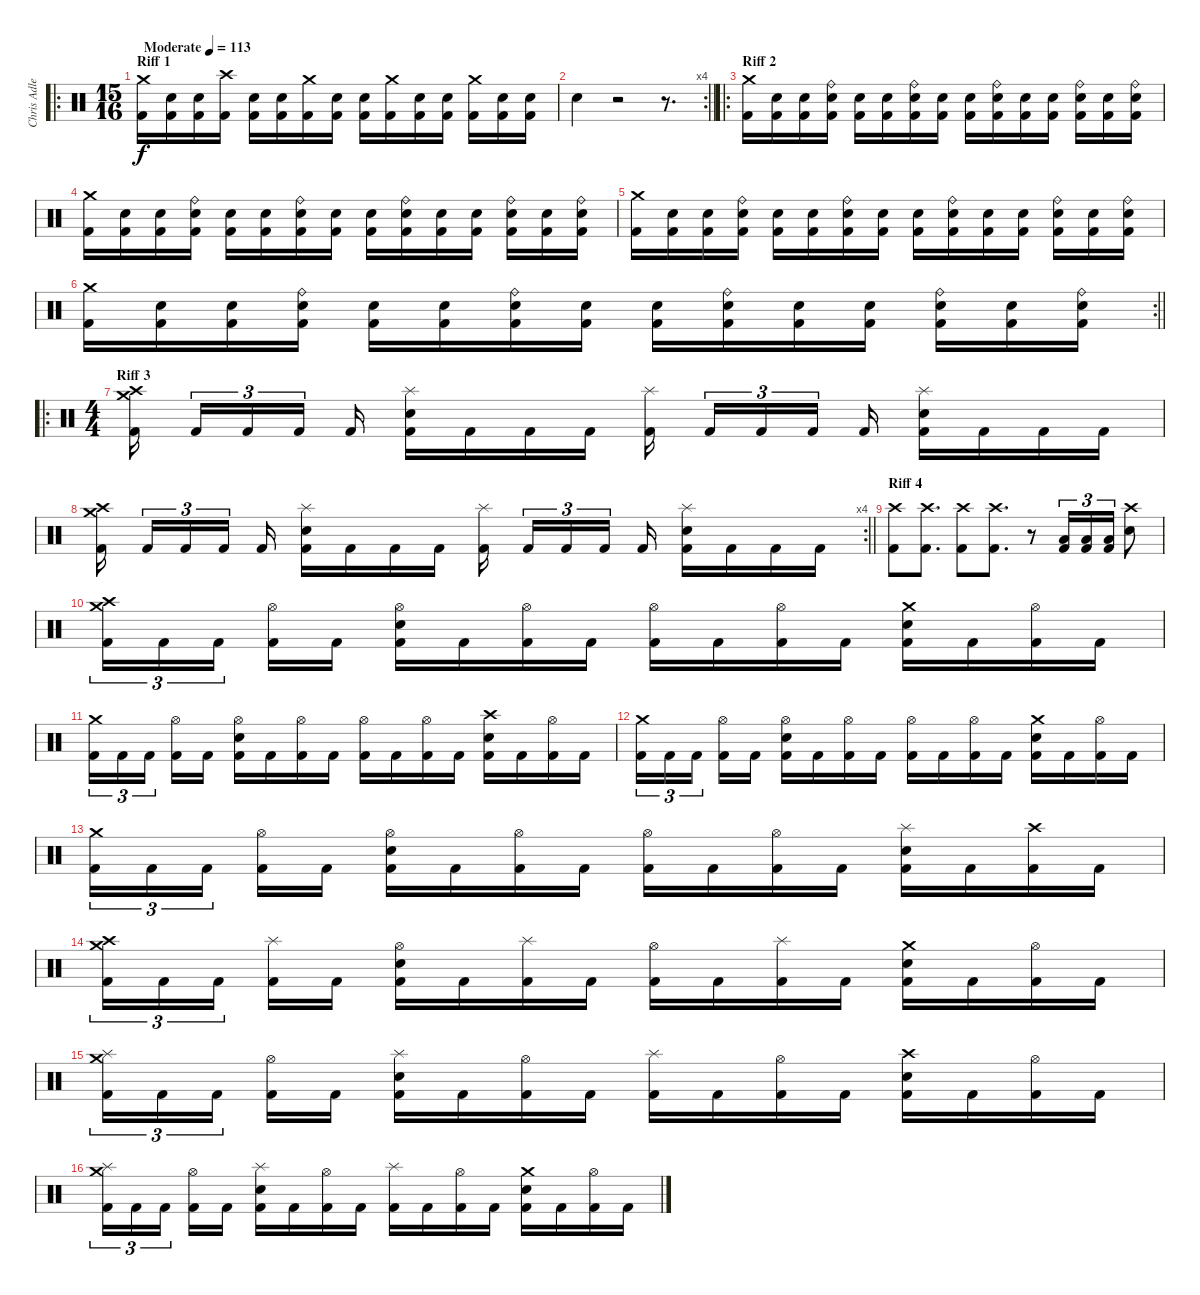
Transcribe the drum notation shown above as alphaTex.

\track ("Chris Adler" "Chris Adle") {instrument percussion}
\staff {score}
\articulation defaults
\ro
\ts (15 16)
\section ("" "Riff 1")
\tempo (113 "Moderate")
\clef neutral
\ks c
("Crash medium (hit)" "Kick (hit) 2").16{dy f} ("Electric Snare (hit)" "Kick (hit) 2").16 ("Electric Snare (hit)" "Kick (hit) 2").16 ("Crash high (hit)" "Kick (hit) 2").16 ("Electric Snare (hit)" "Kick (hit) 2").16 ("Electric Snare (hit)" "Kick (hit) 2").16 ("Crash medium (hit)" "Kick (hit) 2").16 ("Electric Snare (hit)" "Kick (hit) 2").16 ("Electric Snare (hit)" "Kick (hit) 2").16 ("Crash medium (hit)" "Kick (hit) 2").16 ("Electric Snare (hit)" "Kick (hit) 2").16 ("Electric Snare (hit)" "Kick (hit) 2").16 ("Crash medium (hit)" "Kick (hit) 2").16 ("Electric Snare (hit)" "Kick (hit) 2").16 ("Electric Snare (hit)" "Kick (hit) 2").16 |
\rc 4
\barLineRight lightlight "Electric Snare (hit)".4
r.2 r.8{d} |
\ro
\section ("" "Riff 2")
("Crash medium (hit)" "Kick (hit) 2").16 ("Electric Snare (hit)" "Kick (hit) 2").16 ("Electric Snare (hit)" "Kick (hit) 2").16 ("Ride (bell)" "Electric Snare (hit)" "Kick (hit) 2").16 ("Electric Snare (hit)" "Kick (hit) 2").16 ("Electric Snare (hit)" "Kick (hit) 2").16 ("Ride (bell)" "Electric Snare (hit)" "Kick (hit) 2").16 ("Electric Snare (hit)" "Kick (hit) 2").16 ("Electric Snare (hit)" "Kick (hit) 2").16 ("Ride (bell)" "Electric Snare (hit)" "Kick (hit) 2").16 ("Electric Snare (hit)" "Kick (hit) 2").16 ("Electric Snare (hit)" "Kick (hit) 2").16 ("Ride (bell)" "Electric Snare (hit)" "Kick (hit) 2").16 ("Electric Snare (hit)" "Kick (hit) 2").16 ("Ride (bell)" "Electric Snare (hit)" "Kick (hit) 2").16 |
("Crash medium (hit)" "Kick (hit) 2").16 ("Electric Snare (hit)" "Kick (hit) 2").16 ("Electric Snare (hit)" "Kick (hit) 2").16 ("Ride (bell)" "Electric Snare (hit)" "Kick (hit) 2").16 ("Electric Snare (hit)" "Kick (hit) 2").16 ("Electric Snare (hit)" "Kick (hit) 2").16 ("Ride (bell)" "Electric Snare (hit)" "Kick (hit) 2").16 ("Electric Snare (hit)" "Kick (hit) 2").16 ("Electric Snare (hit)" "Kick (hit) 2").16 ("Ride (bell)" "Electric Snare (hit)" "Kick (hit) 2").16 ("Electric Snare (hit)" "Kick (hit) 2").16 ("Electric Snare (hit)" "Kick (hit) 2").16 ("Ride (bell)" "Electric Snare (hit)" "Kick (hit) 2").16 ("Electric Snare (hit)" "Kick (hit) 2").16 ("Ride (bell)" "Electric Snare (hit)" "Kick (hit) 2").16 |
("Crash medium (hit)" "Kick (hit) 2").16 ("Electric Snare (hit)" "Kick (hit) 2").16 ("Electric Snare (hit)" "Kick (hit) 2").16 ("Ride (bell)" "Electric Snare (hit)" "Kick (hit) 2").16 ("Electric Snare (hit)" "Kick (hit) 2").16 ("Electric Snare (hit)" "Kick (hit) 2").16 ("Ride (bell)" "Electric Snare (hit)" "Kick (hit) 2").16 ("Electric Snare (hit)" "Kick (hit) 2").16 ("Electric Snare (hit)" "Kick (hit) 2").16 ("Ride (bell)" "Electric Snare (hit)" "Kick (hit) 2").16 ("Electric Snare (hit)" "Kick (hit) 2").16 ("Electric Snare (hit)" "Kick (hit) 2").16 ("Ride (bell)" "Electric Snare (hit)" "Kick (hit) 2").16 ("Electric Snare (hit)" "Kick (hit) 2").16 ("Ride (bell)" "Electric Snare (hit)" "Kick (hit) 2").16 |
\rc 2
\barLineRight lightlight
("Crash medium (hit)" "Kick (hit) 2").16 ("Electric Snare (hit)" "Kick (hit) 2").16 ("Electric Snare (hit)" "Kick (hit) 2").16 ("Ride (bell)" "Electric Snare (hit)" "Kick (hit) 2").16 ("Electric Snare (hit)" "Kick (hit) 2").16 ("Electric Snare (hit)" "Kick (hit) 2").16 ("Ride (bell)" "Electric Snare (hit)" "Kick (hit) 2").16 ("Electric Snare (hit)" "Kick (hit) 2").16 ("Electric Snare (hit)" "Kick (hit) 2").16 ("Ride (bell)" "Electric Snare (hit)" "Kick (hit) 2").16 ("Electric Snare (hit)" "Kick (hit) 2").16 ("Electric Snare (hit)" "Kick (hit) 2").16 ("Ride (bell)" "Electric Snare (hit)" "Kick (hit) 2").16 ("Electric Snare (hit)" "Kick (hit) 2").16 ("Ride (bell)" "Electric Snare (hit)" "Kick (hit) 2").16 |
\ro
\ts (4 4)
\section ("" "Riff 3")
("Crash medium (hit)" "Crash high (hit)" "Kick (hit) 2").16{beam splitsecondary} "Kick (hit) 2".16{tu (3 2)} "Kick (hit) 2".16{tu (3 2)} "Kick (hit) 2".16{tu (3 2) beam splitsecondary} "Kick (hit) 2".16 ("Splash (hit)" "Electric Snare (hit)" "Kick (hit) 2").16 "Kick (hit) 2".16 "Kick (hit) 2".16 "Kick (hit) 2".16 ("Splash (hit)" "Kick (hit) 2").16{beam splitsecondary} "Kick (hit) 2".16{tu (3 2)} "Kick (hit) 2".16{tu (3 2)} "Kick (hit) 2".16{tu (3 2) beam splitsecondary} "Kick (hit) 2".16 ("Splash (hit)" "Electric Snare (hit)" "Kick (hit) 2").16 "Kick (hit) 2".16 "Kick (hit) 2".16 "Kick (hit) 2".16 |
\rc 4
\barLineRight lightlight
("Crash medium (hit)" "Crash high (hit)" "Kick (hit) 2").16{beam splitsecondary} "Kick (hit) 2".16{tu (3 2)} "Kick (hit) 2".16{tu (3 2)} "Kick (hit) 2".16{tu (3 2) beam splitsecondary} "Kick (hit) 2".16 ("Splash (hit)" "Electric Snare (hit)" "Kick (hit) 2").16 "Kick (hit) 2".16 "Kick (hit) 2".16 "Kick (hit) 2".16 ("Splash (hit)" "Kick (hit) 2").16{beam splitsecondary} "Kick (hit) 2".16{tu (3 2)} "Kick (hit) 2".16{tu (3 2)} "Kick (hit) 2".16{tu (3 2) beam splitsecondary} "Kick (hit) 2".16 ("Splash (hit)" "Electric Snare (hit)" "Kick (hit) 2").16 "Kick (hit) 2".16 "Kick (hit) 2".16 "Kick (hit) 2".16 |
\section ("" "Riff 4")
("Crash high (hit)" "Kick (hit) 2").8 ("Crash high (hit)" "Kick (hit) 2").8{d} ("Crash high (hit)" "Kick (hit) 2").8 ("Crash high (hit)" "Kick (hit) 2").8{d} r.8 ("Low Tom (hit)" "Kick (hit) 2").16{tu (3 2)} ("Low Tom (hit)" "Kick (hit) 2").16{tu (3 2)} ("Low Tom (hit)" "Kick (hit) 2").16{tu (3 2)} ("Crash high (hit)" "Electric Snare (hit)").8 |
("Crash medium (hit)" "Crash high (hit)" "Kick (hit) 2").16{tu (3 2)} "Kick (hit) 2".16{tu (3 2)} "Kick (hit) 2".16{tu (3 2) beam splitsecondary} ("Hi-Hat (open)" "Kick (hit) 2").16 "Kick (hit) 2".16 ("Hi-Hat (open)" "Electric Snare (hit)" "Kick (hit) 2").16 "Kick (hit) 2".16 ("Hi-Hat (open)" "Kick (hit) 2").16 "Kick (hit) 2".16 ("Hi-Hat (open)" "Kick (hit) 2").16 "Kick (hit) 2".16 ("Hi-Hat (open)" "Kick (hit) 2").16 "Kick (hit) 2".16 ("Crash medium (hit)" "Electric Snare (hit)" "Kick (hit) 2").16 "Kick (hit) 2".16 ("Hi-Hat (open)" "Kick (hit) 2").16 "Kick (hit) 2".16 |
("Crash medium (hit)" "Kick (hit) 2").16{tu (3 2)} "Kick (hit) 2".16{tu (3 2)} "Kick (hit) 2".16{tu (3 2) beam splitsecondary} ("Hi-Hat (open)" "Kick (hit) 2").16 "Kick (hit) 2".16 ("Hi-Hat (open)" "Electric Snare (hit)" "Kick (hit) 2").16 "Kick (hit) 2".16 ("Hi-Hat (open)" "Kick (hit) 2").16 "Kick (hit) 2".16 ("Hi-Hat (open)" "Kick (hit) 2").16 "Kick (hit) 2".16 ("Hi-Hat (open)" "Kick (hit) 2").16 "Kick (hit) 2".16 ("Crash high (hit)" "Electric Snare (hit)" "Kick (hit) 2").16 "Kick (hit) 2".16 ("Hi-Hat (open)" "Kick (hit) 2").16 "Kick (hit) 2".16 |
("Crash medium (hit)" "Kick (hit) 2").16{tu (3 2)} "Kick (hit) 2".16{tu (3 2)} "Kick (hit) 2".16{tu (3 2) beam splitsecondary} ("Hi-Hat (open)" "Kick (hit) 2").16 "Kick (hit) 2".16 ("Hi-Hat (open)" "Electric Snare (hit)" "Kick (hit) 2").16 "Kick (hit) 2".16 ("Hi-Hat (open)" "Kick (hit) 2").16 "Kick (hit) 2".16 ("Hi-Hat (open)" "Kick (hit) 2").16 "Kick (hit) 2".16 ("Hi-Hat (open)" "Kick (hit) 2").16 "Kick (hit) 2".16 ("Crash medium (hit)" "Electric Snare (hit)" "Kick (hit) 2").16 "Kick (hit) 2".16 ("Hi-Hat (open)" "Kick (hit) 2").16 "Kick (hit) 2".16 |
("Crash medium (hit)" "Kick (hit) 2").16{tu (3 2)} "Kick (hit) 2".16{tu (3 2)} "Kick (hit) 2".16{tu (3 2) beam splitsecondary} ("Hi-Hat (open)" "Kick (hit) 2").16 "Kick (hit) 2".16 ("Hi-Hat (open)" "Electric Snare (hit)" "Kick (hit) 2").16 "Kick (hit) 2".16 ("Hi-Hat (open)" "Kick (hit) 2").16 "Kick (hit) 2".16 ("Hi-Hat (open)" "Kick (hit) 2").16 "Kick (hit) 2".16 ("Hi-Hat (open)" "Kick (hit) 2").16 "Kick (hit) 2".16 ("Splash (hit)" "Electric Snare (hit)" "Kick (hit) 2").16 "Kick (hit) 2".16 ("Crash high (hit)" "Kick (hit) 2").16 "Kick (hit) 2".16 |
("Crash medium (hit)" "Crash high (hit)" "Kick (hit) 2").16{tu (3 2)} "Kick (hit) 2".16{tu (3 2)} "Kick (hit) 2".16{tu (3 2) beam splitsecondary} ("Splash (hit)" "Kick (hit) 2").16 "Kick (hit) 2".16 ("Hi-Hat (open)" "Electric Snare (hit)" "Kick (hit) 2").16 "Kick (hit) 2".16 ("Splash (hit)" "Kick (hit) 2").16 "Kick (hit) 2".16 ("Hi-Hat (open)" "Kick (hit) 2").16 "Kick (hit) 2".16 ("Splash (hit)" "Kick (hit) 2").16 "Kick (hit) 2".16 ("Crash medium (hit)" "Electric Snare (hit)" "Kick (hit) 2").16 "Kick (hit) 2".16 ("Hi-Hat (open)" "Kick (hit) 2").16 "Kick (hit) 2".16 |
("Crash medium (hit)" "Splash (hit)" "Kick (hit) 2").16{tu (3 2)} "Kick (hit) 2".16{tu (3 2)} "Kick (hit) 2".16{tu (3 2) beam splitsecondary} ("Hi-Hat (open)" "Kick (hit) 2").16 "Kick (hit) 2".16 ("Splash (hit)" "Electric Snare (hit)" "Kick (hit) 2").16 "Kick (hit) 2".16 ("Hi-Hat (open)" "Kick (hit) 2").16 "Kick (hit) 2".16 ("Splash (hit)" "Kick (hit) 2").16 "Kick (hit) 2".16 ("Hi-Hat (open)" "Kick (hit) 2").16 "Kick (hit) 2".16 ("Crash high (hit)" "Electric Snare (hit)" "Kick (hit) 2").16 "Kick (hit) 2".16 ("Hi-Hat (open)" "Kick (hit) 2").16 "Kick (hit) 2".16 |
("Crash medium (hit)" "Splash (hit)" "Kick (hit) 2").16{tu (3 2)} "Kick (hit) 2".16{tu (3 2)} "Kick (hit) 2".16{tu (3 2) beam splitsecondary} ("Hi-Hat (open)" "Kick (hit) 2").16 "Kick (hit) 2".16 ("Splash (hit)" "Electric Snare (hit)" "Kick (hit) 2").16 "Kick (hit) 2".16 ("Hi-Hat (open)" "Kick (hit) 2").16 "Kick (hit) 2".16 ("Splash (hit)" "Kick (hit) 2").16 "Kick (hit) 2".16 ("Hi-Hat (open)" "Kick (hit) 2").16 "Kick (hit) 2".16 ("Crash medium (hit)" "Electric Snare (hit)" "Kick (hit) 2").16 "Kick (hit) 2".16 ("Hi-Hat (open)" "Kick (hit) 2").16 "Kick (hit) 2".16
